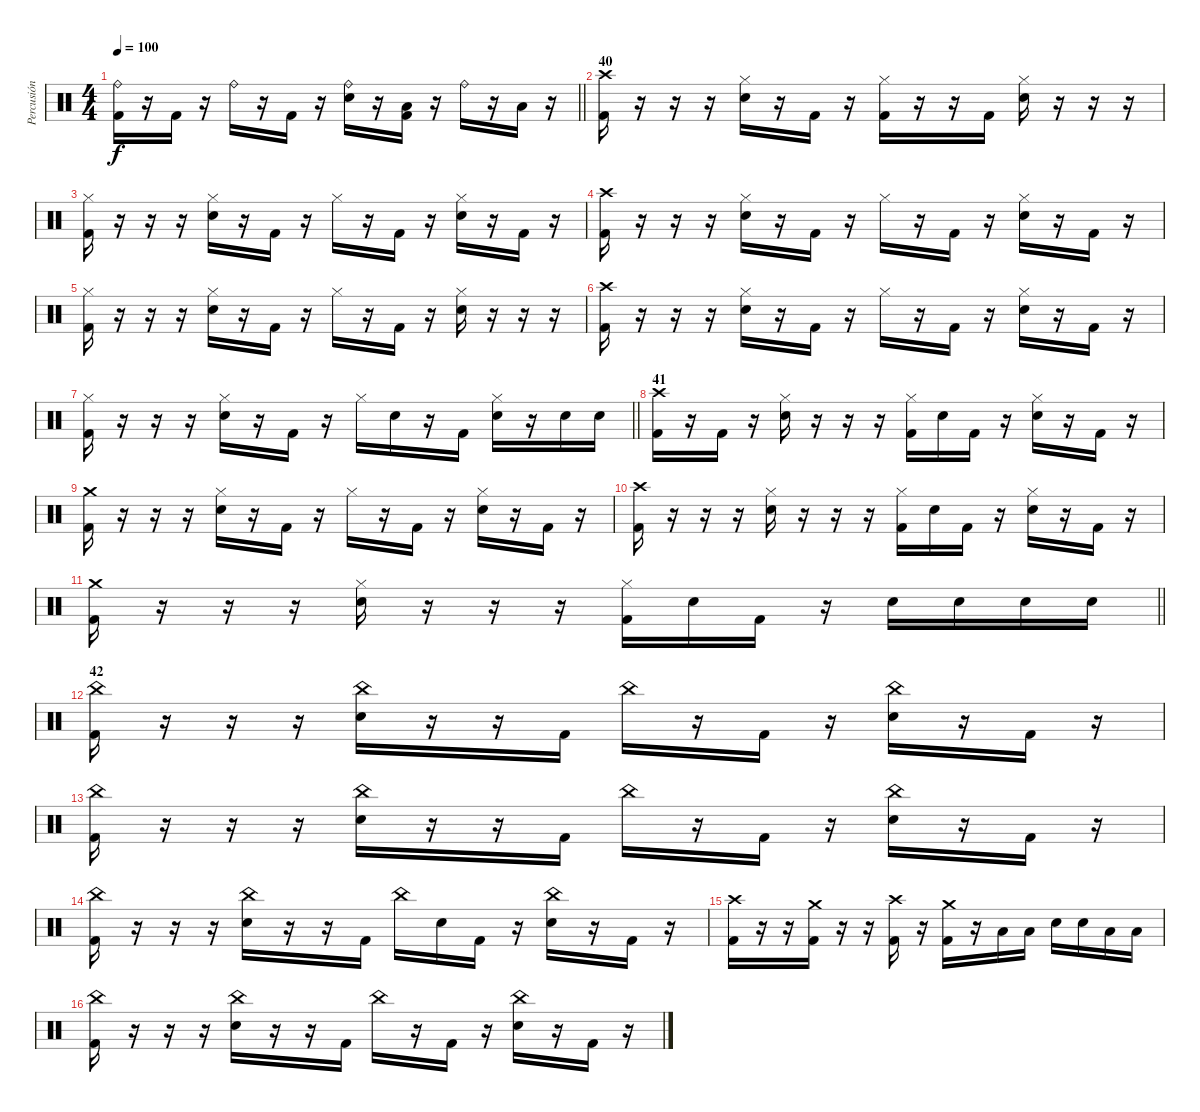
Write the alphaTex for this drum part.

\track ("Percusión" "Percusión") {instrument percussion}
\staff {score}
\articulation defaults
\ts (4 4)
\tempo 100
\clef neutral
\barLineRight lightlight
\ks c
("Ride (bell)" "Kick (hit) 2").16{dy f} r.16 "Kick (hit) 2".16 r.16 "Ride (bell)".16 r.16 "Kick (hit) 2".16 r.16 ("Ride (bell)" "Electric Snare (hit)").16 r.16 ("Low Tom (hit)" "Kick (hit) 2").16 r.16 "Ride (bell)".16 r.16 "Low Tom (hit)".16 r.16 |
\section ("" "40")
("Crash high (hit)" "Kick (hit) 2").16 r.16 r.16 r.16 ("Hi-Hat (closed)" "Electric Snare (hit)").16 r.16 "Kick (hit) 2".16 r.16 ("Hi-Hat (closed)" "Kick (hit) 2").16 r.16 r.16 "Kick (hit) 2".16 ("Hi-Hat (closed)" "Electric Snare (hit)").16 r.16 r.16 r.16 |
("Hi-Hat (closed)" "Kick (hit) 2").16 r.16 r.16 r.16 ("Hi-Hat (closed)" "Electric Snare (hit)").16 r.16 "Kick (hit) 2".16 r.16 "Hi-Hat (closed)".16 r.16 "Kick (hit) 2".16 r.16 ("Hi-Hat (closed)" "Electric Snare (hit)").16 r.16 "Kick (hit) 2".16 r.16 |
("Crash high (hit)" "Kick (hit) 2").16 r.16 r.16 r.16 ("Hi-Hat (closed)" "Electric Snare (hit)").16 r.16 "Kick (hit) 2".16 r.16 "Hi-Hat (closed)".16 r.16 "Kick (hit) 2".16 r.16 ("Hi-Hat (closed)" "Electric Snare (hit)").16 r.16 "Kick (hit) 2".16 r.16 |
("Hi-Hat (closed)" "Kick (hit) 2").16 r.16 r.16 r.16 ("Hi-Hat (closed)" "Electric Snare (hit)").16 r.16 "Kick (hit) 2".16 r.16 "Hi-Hat (closed)".16 r.16 "Kick (hit) 2".16 r.16 ("Hi-Hat (closed)" "Electric Snare (hit)").16 r.16 r.16 r.16 |
("Crash high (hit)" "Kick (hit) 2").16 r.16 r.16 r.16 ("Hi-Hat (closed)" "Electric Snare (hit)").16 r.16 "Kick (hit) 2".16 r.16 "Hi-Hat (closed)".16 r.16 "Kick (hit) 2".16 r.16 ("Hi-Hat (closed)" "Electric Snare (hit)").16 r.16 "Kick (hit) 2".16 r.16 |
\barLineRight lightlight
("Hi-Hat (closed)" "Kick (hit) 2").16 r.16 r.16 r.16 ("Hi-Hat (closed)" "Electric Snare (hit)").16 r.16 "Kick (hit) 2".16 r.16 "Hi-Hat (closed)".16 "Electric Snare (hit)".16 r.16 "Kick (hit) 2".16 ("Hi-Hat (closed)" "Electric Snare (hit)").16 r.16 "Electric Snare (hit)".16 "Electric Snare (hit)".16 |
\section ("" "41")
("Crash high (hit)" "Kick (hit) 2").16 r.16 "Kick (hit) 2".16 r.16 ("Hi-Hat (closed)" "Electric Snare (hit)").16 r.16 r.16 r.16 ("Hi-Hat (closed)" "Kick (hit) 2").16 "Electric Snare (hit)".16 "Kick (hit) 2".16 r.16 ("Hi-Hat (closed)" "Electric Snare (hit)").16 r.16 "Kick (hit) 2".16 r.16 |
("Crash medium (hit)" "Kick (hit) 2").16 r.16 r.16 r.16 ("Hi-Hat (closed)" "Electric Snare (hit)").16 r.16 "Kick (hit) 2".16 r.16 "Hi-Hat (closed)".16 r.16 "Kick (hit) 2".16 r.16 ("Hi-Hat (closed)" "Electric Snare (hit)").16 r.16 "Kick (hit) 2".16 r.16 |
("Crash high (hit)" "Kick (hit) 2").16 r.16 r.16 r.16 ("Hi-Hat (closed)" "Electric Snare (hit)").16 r.16 r.16 r.16 ("Hi-Hat (closed)" "Kick (hit) 2").16 "Electric Snare (hit)".16 "Kick (hit) 2".16 r.16 ("Hi-Hat (closed)" "Electric Snare (hit)").16 r.16 "Kick (hit) 2".16 r.16 |
\barLineRight lightlight
("Crash medium (hit)" "Kick (hit) 2").16 r.16 r.16 r.16 ("Hi-Hat (closed)" "Electric Snare (hit)").16 r.16 r.16 r.16 ("Hi-Hat (closed)" "Kick (hit) 2").16 "Electric Snare (hit)".16 "Kick (hit) 2".16 r.16 "Electric Snare (hit)".16 "Electric Snare (hit)".16 "Electric Snare (hit)".16 "Electric Snare (hit)".16 |
\section ("" "42")
("China (hit)" "Kick (hit) 2").16 r.16 r.16 r.16 ("China (hit)" "Electric Snare (hit)").16 r.16 r.16 "Kick (hit) 2".16 "China (hit)".16 r.16 "Kick (hit) 2".16 r.16 ("China (hit)" "Electric Snare (hit)").16 r.16 "Kick (hit) 2".16 r.16 |
("China (hit)" "Kick (hit) 2").16 r.16 r.16 r.16 ("China (hit)" "Electric Snare (hit)").16 r.16 r.16 "Kick (hit) 2".16 "China (hit)".16 r.16 "Kick (hit) 2".16 r.16 ("China (hit)" "Electric Snare (hit)").16 r.16 "Kick (hit) 2".16 r.16 |
("China (hit)" "Kick (hit) 2").16 r.16 r.16 r.16 ("China (hit)" "Electric Snare (hit)").16 r.16 r.16 "Kick (hit) 2".16 "China (hit)".16 "Electric Snare (hit)".16 "Kick (hit) 2".16 r.16 ("China (hit)" "Electric Snare (hit)").16 r.16 "Kick (hit) 2".16 r.16 |
("Crash high (hit)" "Kick (hit) 2").16 r.16 r.16 ("Crash medium (hit)" "Kick (hit) 2").16 r.16 r.16 ("Crash high (hit)" "Kick (hit) 2").16 r.16 ("Crash medium (hit)" "Kick (hit) 2").16 r.16 "Low Tom (hit)".16 "Low Tom (hit)".16 "Electric Snare (hit)".16 "Electric Snare (hit)".16 "Low Tom (hit)".16 "Low Tom (hit)".16 |
("China (hit)" "Kick (hit) 2").16 r.16 r.16 r.16 ("China (hit)" "Electric Snare (hit)").16 r.16 r.16 "Kick (hit) 2".16 "China (hit)".16 r.16 "Kick (hit) 2".16 r.16 ("China (hit)" "Electric Snare (hit)").16 r.16 "Kick (hit) 2".16 r.16
